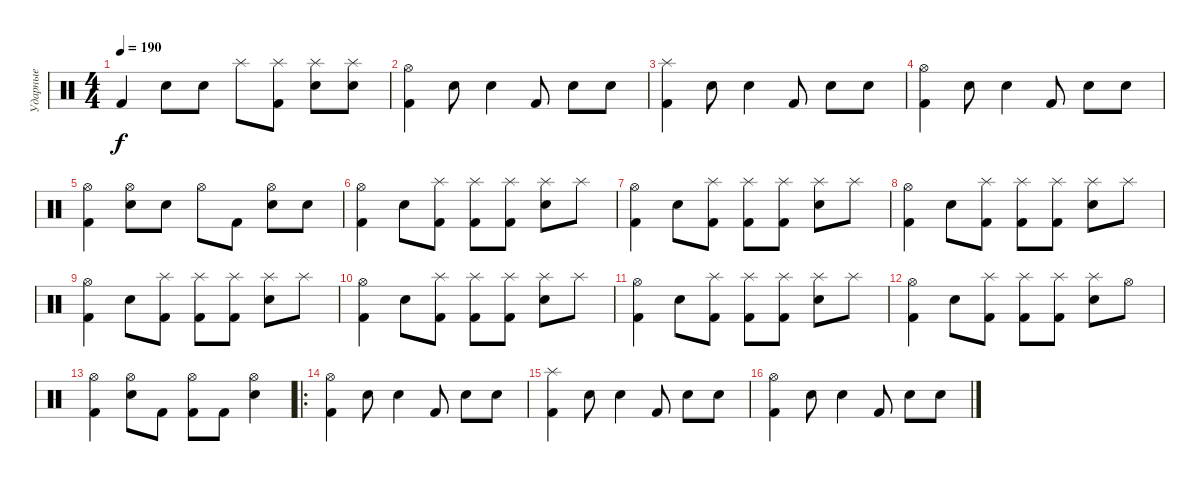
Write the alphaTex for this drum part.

\track ("Ударные" "Ударные") {instrument percussion}
\staff {score}
\articulation defaults
\ts (4 4)
\tempo 190
\clef neutral
\ks c "Kick (hit) 2".4{dy f} "Electric Snare (hit)".8 "Electric Snare (hit)".8 "Splash (hit)".8
("Splash (hit)" "Kick (hit) 2").8 ("Splash (hit)" "Electric Snare (hit)").8 ("Splash (hit)" "Electric Snare (hit)").8 |
("Hi-Hat (open)" "Kick (hit) 2").4 "Electric Snare (hit)".8 "Electric Snare (hit)".4 "Kick (hit) 2".8 "Electric Snare (hit)".8 "Electric Snare (hit)".8 |
("Splash (hit)" "Kick (hit) 2").4 "Electric Snare (hit)".8 "Electric Snare (hit)".4 "Kick (hit) 2".8 "Electric Snare (hit)".8 "Electric Snare (hit)".8 |
("Hi-Hat (open)" "Kick (hit) 2").4 "Electric Snare (hit)".8 "Electric Snare (hit)".4 "Kick (hit) 2".8 "Electric Snare (hit)".8 "Electric Snare (hit)".8 |
("Hi-Hat (open)" "Kick (hit) 2").4 ("Hi-Hat (open)" "Electric Snare (hit)").8 "Electric Snare (hit)".8 "Hi-Hat (open)".8 "Kick (hit) 2".8 ("Hi-Hat (open)" "Electric Snare (hit)").8 "Electric Snare (hit)".8 |
("Hi-Hat (open)" "Kick (hit) 2").4 "Electric Snare (hit)".8 ("Splash (hit)" "Kick (hit) 2").8 ("Splash (hit)" "Kick (hit) 2").8 ("Splash (hit)" "Kick (hit) 2").8 ("Splash (hit)" "Electric Snare (hit)").8 "Splash (hit)".8 |
("Hi-Hat (open)" "Kick (hit) 2").4 "Electric Snare (hit)".8 ("Splash (hit)" "Kick (hit) 2").8 ("Splash (hit)" "Kick (hit) 2").8 ("Splash (hit)" "Kick (hit) 2").8 ("Splash (hit)" "Electric Snare (hit)").8 "Splash (hit)".8 |
("Hi-Hat (open)" "Kick (hit) 2").4 "Electric Snare (hit)".8 ("Splash (hit)" "Kick (hit) 2").8 ("Splash (hit)" "Kick (hit) 2").8 ("Splash (hit)" "Kick (hit) 2").8 ("Splash (hit)" "Electric Snare (hit)").8 "Splash (hit)".8 |
("Hi-Hat (open)" "Kick (hit) 2").4 "Electric Snare (hit)".8 ("Splash (hit)" "Kick (hit) 2").8 ("Splash (hit)" "Kick (hit) 2").8 ("Splash (hit)" "Kick (hit) 2").8 ("Splash (hit)" "Electric Snare (hit)").8 "Splash (hit)".8 |
("Hi-Hat (open)" "Kick (hit) 2").4 "Electric Snare (hit)".8 ("Splash (hit)" "Kick (hit) 2").8 ("Splash (hit)" "Kick (hit) 2").8 ("Splash (hit)" "Kick (hit) 2").8 ("Splash (hit)" "Electric Snare (hit)").8 "Splash (hit)".8 |
("Hi-Hat (open)" "Kick (hit) 2").4 "Electric Snare (hit)".8 ("Splash (hit)" "Kick (hit) 2").8 ("Splash (hit)" "Kick (hit) 2").8 ("Splash (hit)" "Kick (hit) 2").8 ("Splash (hit)" "Electric Snare (hit)").8 "Splash (hit)".8 |
("Hi-Hat (open)" "Kick (hit) 2").4 "Electric Snare (hit)".8 ("Splash (hit)" "Kick (hit) 2").8 ("Splash (hit)" "Kick (hit) 2").8 ("Splash (hit)" "Kick (hit) 2").8 ("Splash (hit)" "Electric Snare (hit)").8 "Hi-Hat (open)".8 |
("Hi-Hat (open)" "Kick (hit) 2").4 ("Hi-Hat (open)" "Electric Snare (hit)").8 "Kick (hit) 2".8 ("Hi-Hat (open)" "Kick (hit) 2").8 "Kick (hit) 2".8 ("Hi-Hat (open)" "Electric Snare (hit)").4 |
\ro
("Hi-Hat (open)" "Kick (hit) 2").4 "Electric Snare (hit)".8 "Electric Snare (hit)".4 "Kick (hit) 2".8 "Electric Snare (hit)".8 "Electric Snare (hit)".8 |
("Splash (hit)" "Kick (hit) 2").4 "Electric Snare (hit)".8 "Electric Snare (hit)".4 "Kick (hit) 2".8 "Electric Snare (hit)".8 "Electric Snare (hit)".8 |
("Hi-Hat (open)" "Kick (hit) 2").4 "Electric Snare (hit)".8 "Electric Snare (hit)".4 "Kick (hit) 2".8 "Electric Snare (hit)".8 "Electric Snare (hit)".8
